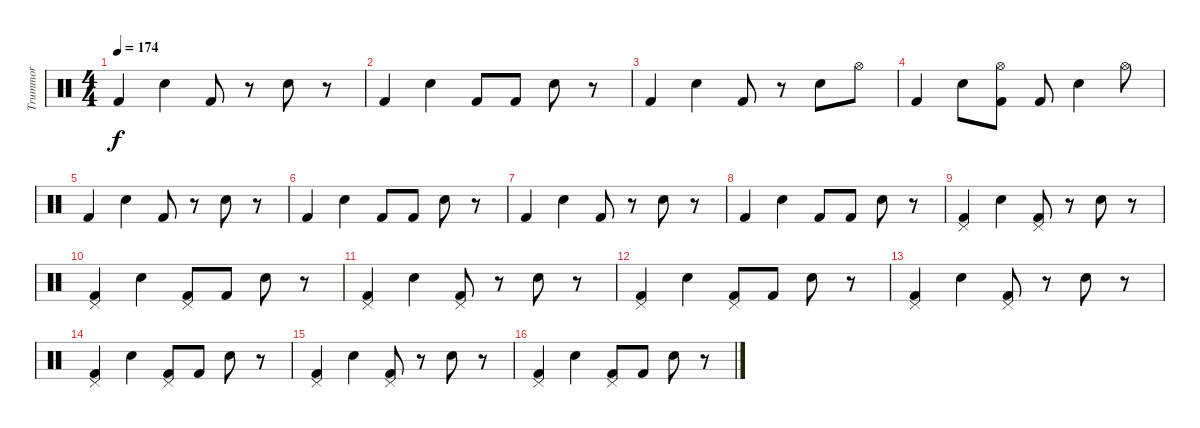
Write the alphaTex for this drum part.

\track ("Trummor" "Trummor") {instrument percussion}
\staff {score}
\articulation defaults
\ts (4 4)
\tempo 174
\clef neutral
\ks c "Kick (hit) 2".4{dy f} "Snare (hit) 2".4 "Kick (hit) 2".8
r.8 "Snare (hit) 2".8 r.8 |
"Kick (hit) 2".4 "Snare (hit) 2".4 "Kick (hit) 2".8 "Kick (hit) 2".8 "Snare (hit) 2".8 r.8 |
"Kick (hit) 2".4 "Snare (hit) 2".4 "Kick (hit) 2".8 r.8 "Snare (hit) 2".8 "Hi-Hat (open)".8 |
"Kick (hit) 2".4 "Snare (hit) 2".8 ("Hi-Hat (open)" "Kick (hit) 2").8 "Kick (hit) 2".8 "Snare (hit) 2".4 "Hi-Hat (open)".8 |
"Kick (hit) 2".4 "Snare (hit) 2".4 "Kick (hit) 2".8 r.8 "Snare (hit) 2".8 r.8 |
"Kick (hit) 2".4 "Snare (hit) 2".4 "Kick (hit) 2".8 "Kick (hit) 2".8 "Snare (hit) 2".8 r.8 |
"Kick (hit) 2".4 "Snare (hit) 2".4 "Kick (hit) 2".8 r.8 "Snare (hit) 2".8 r.8 |
"Kick (hit) 2".4 "Snare (hit) 2".4 "Kick (hit) 2".8 "Kick (hit) 2".8 "Snare (hit) 2".8 r.8 |
("Pedal Hi-Hat (hit)" "Kick (hit) 2").4 "Snare (hit) 2".4 ("Pedal Hi-Hat (hit)" "Kick (hit) 2").8 r.8 "Snare (hit) 2".8 r.8 |
("Pedal Hi-Hat (hit)" "Kick (hit) 2").4 "Snare (hit) 2".4 ("Pedal Hi-Hat (hit)" "Kick (hit) 2").8 "Kick (hit) 2".8 "Snare (hit) 2".8 r.8 |
("Pedal Hi-Hat (hit)" "Kick (hit) 2").4 "Snare (hit) 2".4 ("Pedal Hi-Hat (hit)" "Kick (hit) 2").8 r.8 "Snare (hit) 2".8 r.8 |
("Pedal Hi-Hat (hit)" "Kick (hit) 2").4 "Snare (hit) 2".4 ("Pedal Hi-Hat (hit)" "Kick (hit) 2").8 "Kick (hit) 2".8 "Snare (hit) 2".8 r.8 |
("Pedal Hi-Hat (hit)" "Kick (hit) 2").4 "Snare (hit) 2".4 ("Pedal Hi-Hat (hit)" "Kick (hit) 2").8 r.8 "Snare (hit) 2".8 r.8 |
("Pedal Hi-Hat (hit)" "Kick (hit) 2").4 "Snare (hit) 2".4 ("Pedal Hi-Hat (hit)" "Kick (hit) 2").8 "Kick (hit) 2".8 "Snare (hit) 2".8 r.8 |
("Pedal Hi-Hat (hit)" "Kick (hit) 2").4 "Snare (hit) 2".4 ("Pedal Hi-Hat (hit)" "Kick (hit) 2").8 r.8 "Snare (hit) 2".8 r.8 |
("Pedal Hi-Hat (hit)" "Kick (hit) 2").4 "Snare (hit) 2".4 ("Pedal Hi-Hat (hit)" "Kick (hit) 2").8 "Kick (hit) 2".8 "Snare (hit) 2".8 r.8
